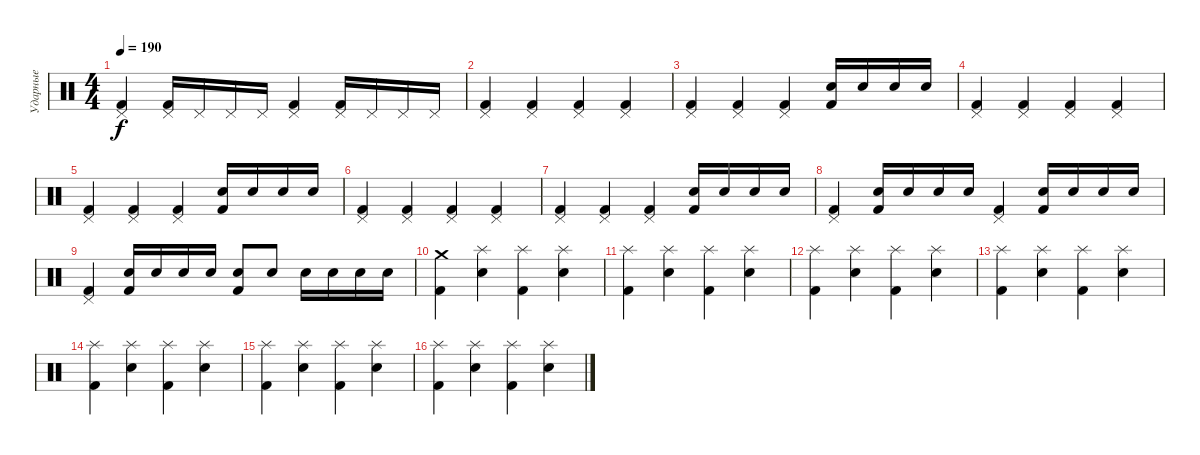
\track ("Ударные" "Ударные") {instrument percussion}
\staff {score}
\articulation defaults
\ts (4 4)
\tempo 190
\clef neutral
\ks c
("Pedal Hi-Hat (hit)" "Kick (hit) 2").4{dy f} ("Pedal Hi-Hat (hit)" "Kick (hit) 2").16 "Pedal Hi-Hat (hit)".16 "Pedal Hi-Hat (hit)".16 "Pedal Hi-Hat (hit)".16 ("Pedal Hi-Hat (hit)" "Kick (hit) 2").4 ("Pedal Hi-Hat (hit)" "Kick (hit) 2").16 "Pedal Hi-Hat (hit)".16 "Pedal Hi-Hat (hit)".16 "Pedal Hi-Hat (hit)".16 |
("Pedal Hi-Hat (hit)" "Kick (hit) 2").4 ("Pedal Hi-Hat (hit)" "Kick (hit) 2").4 ("Pedal Hi-Hat (hit)" "Kick (hit) 2").4 ("Pedal Hi-Hat (hit)" "Kick (hit) 2").4 |
("Pedal Hi-Hat (hit)" "Kick (hit) 2").4 ("Pedal Hi-Hat (hit)" "Kick (hit) 2").4 ("Pedal Hi-Hat (hit)" "Kick (hit) 2").4 ("Electric Snare (hit)" "Kick (hit) 2").16 "Electric Snare (hit)".16 "Electric Snare (hit)".16 "Electric Snare (hit)".16 |
("Pedal Hi-Hat (hit)" "Kick (hit) 2").4 ("Pedal Hi-Hat (hit)" "Kick (hit) 2").4 ("Pedal Hi-Hat (hit)" "Kick (hit) 2").4 ("Pedal Hi-Hat (hit)" "Kick (hit) 2").4 |
("Pedal Hi-Hat (hit)" "Kick (hit) 2").4 ("Pedal Hi-Hat (hit)" "Kick (hit) 2").4 ("Pedal Hi-Hat (hit)" "Kick (hit) 2").4 ("Electric Snare (hit)" "Kick (hit) 2").16 "Electric Snare (hit)".16 "Electric Snare (hit)".16 "Electric Snare (hit)".16 |
("Pedal Hi-Hat (hit)" "Kick (hit) 2").4 ("Pedal Hi-Hat (hit)" "Kick (hit) 2").4 ("Pedal Hi-Hat (hit)" "Kick (hit) 2").4 ("Pedal Hi-Hat (hit)" "Kick (hit) 2").4 |
("Pedal Hi-Hat (hit)" "Kick (hit) 2").4 ("Pedal Hi-Hat (hit)" "Kick (hit) 2").4 ("Pedal Hi-Hat (hit)" "Kick (hit) 2").4 ("Electric Snare (hit)" "Kick (hit) 2").16 "Electric Snare (hit)".16 "Electric Snare (hit)".16 "Electric Snare (hit)".16 |
("Pedal Hi-Hat (hit)" "Kick (hit) 2").4 ("Electric Snare (hit)" "Kick (hit) 2").16 "Electric Snare (hit)".16 "Electric Snare (hit)".16 "Electric Snare (hit)".16 ("Pedal Hi-Hat (hit)" "Kick (hit) 2").4 ("Electric Snare (hit)" "Kick (hit) 2").16 "Electric Snare (hit)".16 "Electric Snare (hit)".16 "Electric Snare (hit)".16 |
("Pedal Hi-Hat (hit)" "Kick (hit) 2").4 ("Electric Snare (hit)" "Kick (hit) 2").16 "Electric Snare (hit)".16 "Electric Snare (hit)".16 "Electric Snare (hit)".16 ("Electric Snare (hit)" "Kick (hit) 2").8 "Electric Snare (hit)".8 "Electric Snare (hit)".16 "Electric Snare (hit)".16 "Electric Snare (hit)".16 "Electric Snare (hit)".16 |
("Crash medium (hit)" "Kick (hit) 2").4 ("Splash (hit)" "Snare (hit) 2").4 ("Splash (hit)" "Kick (hit) 2").4 ("Splash (hit)" "Snare (hit) 2").4 |
("Splash (hit)" "Kick (hit) 2").4 ("Splash (hit)" "Snare (hit) 2").4 ("Splash (hit)" "Kick (hit) 2").4 ("Splash (hit)" "Snare (hit) 2").4 |
("Splash (hit)" "Kick (hit) 2").4 ("Splash (hit)" "Snare (hit) 2").4 ("Splash (hit)" "Kick (hit) 2").4 ("Splash (hit)" "Snare (hit) 2").4 |
("Splash (hit)" "Kick (hit) 2").4 ("Splash (hit)" "Snare (hit) 2").4 ("Splash (hit)" "Kick (hit) 2").4 ("Splash (hit)" "Snare (hit) 2").4 |
("Splash (hit)" "Kick (hit) 2").4 ("Splash (hit)" "Snare (hit) 2").4 ("Splash (hit)" "Kick (hit) 2").4 ("Splash (hit)" "Snare (hit) 2").4 |
("Splash (hit)" "Kick (hit) 2").4 ("Splash (hit)" "Snare (hit) 2").4 ("Splash (hit)" "Kick (hit) 2").4 ("Splash (hit)" "Snare (hit) 2").4 |
("Splash (hit)" "Kick (hit) 2").4 ("Splash (hit)" "Snare (hit) 2").4 ("Splash (hit)" "Kick (hit) 2").4 ("Splash (hit)" "Snare (hit) 2").4
